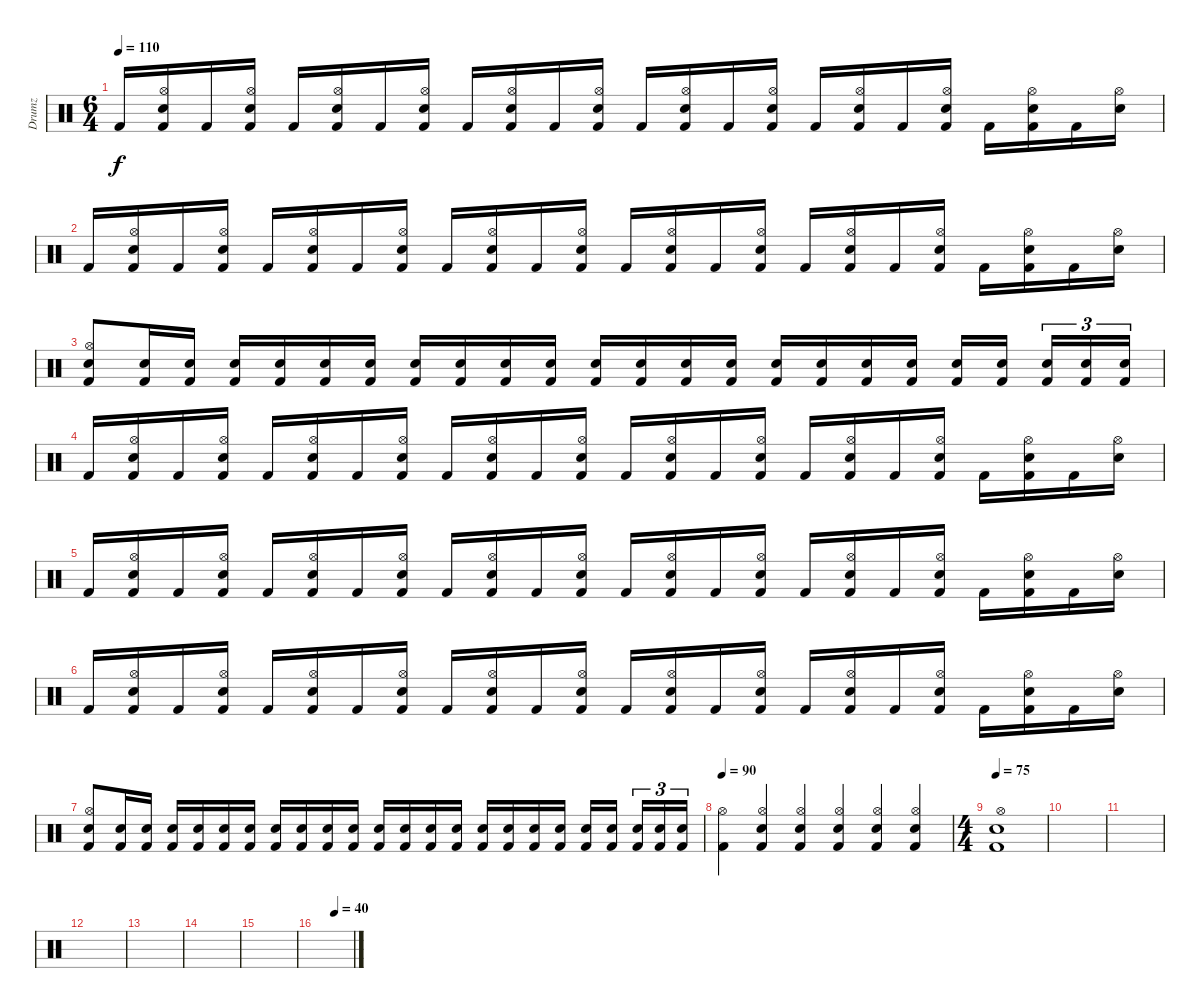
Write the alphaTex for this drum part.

\track ("Drumz" "Drumz") {instrument percussion}
\staff {score}
\articulation defaults
\ts (6 4)
\tempo 110
\clef neutral
\ks c "Kick (hit) 2".16{dy f}
("Hi-Hat (open)" "Snare (hit) 2" "Kick (hit) 2").16 "Kick (hit) 2".16 ("Hi-Hat (open)" "Snare (hit) 2" "Kick (hit) 2").16 "Kick (hit) 2".16 ("Hi-Hat (open)" "Snare (hit) 2" "Kick (hit) 2").16 "Kick (hit) 2".16 ("Hi-Hat (open)" "Snare (hit) 2" "Kick (hit) 2").16 "Kick (hit) 2".16 ("Hi-Hat (open)" "Snare (hit) 2" "Kick (hit) 2").16 "Kick (hit) 2".16 ("Hi-Hat (open)" "Snare (hit) 2" "Kick (hit) 2").16 "Kick (hit) 2".16 ("Hi-Hat (open)" "Snare (hit) 2" "Kick (hit) 2").16 "Kick (hit) 2".16 ("Hi-Hat (open)" "Snare (hit) 2" "Kick (hit) 2").16 "Kick (hit) 2".16 ("Hi-Hat (open)" "Snare (hit) 2" "Kick (hit) 2").16 "Kick (hit) 2".16 ("Hi-Hat (open)" "Snare (hit) 2" "Kick (hit) 2").16 "Kick (hit) 2".16 ("Hi-Hat (open)" "Snare (hit) 2" "Kick (hit) 2").16 "Kick (hit) 2".16 ("Hi-Hat (open)" "Snare (hit) 2").16 |
"Kick (hit) 2".16 ("Hi-Hat (open)" "Snare (hit) 2" "Kick (hit) 2").16 "Kick (hit) 2".16 ("Hi-Hat (open)" "Snare (hit) 2" "Kick (hit) 2").16 "Kick (hit) 2".16 ("Hi-Hat (open)" "Snare (hit) 2" "Kick (hit) 2").16 "Kick (hit) 2".16 ("Hi-Hat (open)" "Snare (hit) 2" "Kick (hit) 2").16 "Kick (hit) 2".16 ("Hi-Hat (open)" "Snare (hit) 2" "Kick (hit) 2").16 "Kick (hit) 2".16 ("Hi-Hat (open)" "Snare (hit) 2" "Kick (hit) 2").16 "Kick (hit) 2".16 ("Hi-Hat (open)" "Snare (hit) 2" "Kick (hit) 2").16 "Kick (hit) 2".16 ("Hi-Hat (open)" "Snare (hit) 2" "Kick (hit) 2").16 "Kick (hit) 2".16 ("Hi-Hat (open)" "Snare (hit) 2" "Kick (hit) 2").16 "Kick (hit) 2".16 ("Hi-Hat (open)" "Snare (hit) 2" "Kick (hit) 2").16 "Kick (hit) 2".16 ("Hi-Hat (open)" "Snare (hit) 2" "Kick (hit) 2").16 "Kick (hit) 2".16 ("Hi-Hat (open)" "Snare (hit) 2").16 |
("Hi-Hat (open)" "Snare (hit) 2" "Kick (hit) 2").8 ("Snare (hit) 2" "Kick (hit) 2").16 ("Snare (hit) 2" "Kick (hit) 2").16 ("Snare (hit) 2" "Kick (hit) 2").16 ("Snare (hit) 2" "Kick (hit) 2").16 ("Snare (hit) 2" "Kick (hit) 2").16 ("Snare (hit) 2" "Kick (hit) 2").16 ("Snare (hit) 2" "Kick (hit) 2").16 ("Snare (hit) 2" "Kick (hit) 2").16 ("Snare (hit) 2" "Kick (hit) 2").16 ("Snare (hit) 2" "Kick (hit) 2").16 ("Snare (hit) 2" "Kick (hit) 2").16 ("Snare (hit) 2" "Kick (hit) 2").16 ("Snare (hit) 2" "Kick (hit) 2").16 ("Snare (hit) 2" "Kick (hit) 2").16 ("Snare (hit) 2" "Kick (hit) 2").16 ("Snare (hit) 2" "Kick (hit) 2").16 ("Snare (hit) 2" "Kick (hit) 2").16 ("Snare (hit) 2" "Kick (hit) 2").16 ("Snare (hit) 2" "Kick (hit) 2").16 ("Snare (hit) 2" "Kick (hit) 2").16 ("Snare (hit) 2" "Kick (hit) 2").16{tu (3 2)} ("Snare (hit) 2" "Kick (hit) 2").16{tu (3 2)} ("Snare (hit) 2" "Kick (hit) 2").16{tu (3 2)} |
"Kick (hit) 2".16 ("Hi-Hat (open)" "Snare (hit) 2" "Kick (hit) 2").16 "Kick (hit) 2".16 ("Hi-Hat (open)" "Snare (hit) 2" "Kick (hit) 2").16 "Kick (hit) 2".16 ("Hi-Hat (open)" "Snare (hit) 2" "Kick (hit) 2").16 "Kick (hit) 2".16 ("Hi-Hat (open)" "Snare (hit) 2" "Kick (hit) 2").16 "Kick (hit) 2".16 ("Hi-Hat (open)" "Snare (hit) 2" "Kick (hit) 2").16 "Kick (hit) 2".16 ("Hi-Hat (open)" "Snare (hit) 2" "Kick (hit) 2").16 "Kick (hit) 2".16 ("Hi-Hat (open)" "Snare (hit) 2" "Kick (hit) 2").16 "Kick (hit) 2".16 ("Hi-Hat (open)" "Snare (hit) 2" "Kick (hit) 2").16 "Kick (hit) 2".16 ("Hi-Hat (open)" "Snare (hit) 2" "Kick (hit) 2").16 "Kick (hit) 2".16 ("Hi-Hat (open)" "Snare (hit) 2" "Kick (hit) 2").16 "Kick (hit) 2".16 ("Hi-Hat (open)" "Snare (hit) 2" "Kick (hit) 2").16 "Kick (hit) 2".16 ("Hi-Hat (open)" "Snare (hit) 2").16 |
"Kick (hit) 2".16 ("Hi-Hat (open)" "Snare (hit) 2" "Kick (hit) 2").16 "Kick (hit) 2".16 ("Hi-Hat (open)" "Snare (hit) 2" "Kick (hit) 2").16 "Kick (hit) 2".16 ("Hi-Hat (open)" "Snare (hit) 2" "Kick (hit) 2").16 "Kick (hit) 2".16 ("Hi-Hat (open)" "Snare (hit) 2" "Kick (hit) 2").16 "Kick (hit) 2".16 ("Hi-Hat (open)" "Snare (hit) 2" "Kick (hit) 2").16 "Kick (hit) 2".16 ("Hi-Hat (open)" "Snare (hit) 2" "Kick (hit) 2").16 "Kick (hit) 2".16 ("Hi-Hat (open)" "Snare (hit) 2" "Kick (hit) 2").16 "Kick (hit) 2".16 ("Hi-Hat (open)" "Snare (hit) 2" "Kick (hit) 2").16 "Kick (hit) 2".16 ("Hi-Hat (open)" "Snare (hit) 2" "Kick (hit) 2").16 "Kick (hit) 2".16 ("Hi-Hat (open)" "Snare (hit) 2" "Kick (hit) 2").16 "Kick (hit) 2".16 ("Hi-Hat (open)" "Snare (hit) 2" "Kick (hit) 2").16 "Kick (hit) 2".16 ("Hi-Hat (open)" "Snare (hit) 2").16 |
"Kick (hit) 2".16 ("Hi-Hat (open)" "Snare (hit) 2" "Kick (hit) 2").16 "Kick (hit) 2".16 ("Hi-Hat (open)" "Snare (hit) 2" "Kick (hit) 2").16 "Kick (hit) 2".16 ("Hi-Hat (open)" "Snare (hit) 2" "Kick (hit) 2").16 "Kick (hit) 2".16 ("Hi-Hat (open)" "Snare (hit) 2" "Kick (hit) 2").16 "Kick (hit) 2".16 ("Hi-Hat (open)" "Snare (hit) 2" "Kick (hit) 2").16 "Kick (hit) 2".16 ("Hi-Hat (open)" "Snare (hit) 2" "Kick (hit) 2").16 "Kick (hit) 2".16 ("Hi-Hat (open)" "Snare (hit) 2" "Kick (hit) 2").16 "Kick (hit) 2".16 ("Hi-Hat (open)" "Snare (hit) 2" "Kick (hit) 2").16 "Kick (hit) 2".16 ("Hi-Hat (open)" "Snare (hit) 2" "Kick (hit) 2").16 "Kick (hit) 2".16 ("Hi-Hat (open)" "Snare (hit) 2" "Kick (hit) 2").16 "Kick (hit) 2".16 ("Hi-Hat (open)" "Snare (hit) 2" "Kick (hit) 2").16 "Kick (hit) 2".16 ("Hi-Hat (open)" "Snare (hit) 2").16 |
("Hi-Hat (open)" "Snare (hit) 2" "Kick (hit) 2").8 ("Snare (hit) 2" "Kick (hit) 2").16 ("Snare (hit) 2" "Kick (hit) 2").16 ("Snare (hit) 2" "Kick (hit) 2").16 ("Snare (hit) 2" "Kick (hit) 2").16 ("Snare (hit) 2" "Kick (hit) 2").16 ("Snare (hit) 2" "Kick (hit) 2").16 ("Snare (hit) 2" "Kick (hit) 2").16 ("Snare (hit) 2" "Kick (hit) 2").16 ("Snare (hit) 2" "Kick (hit) 2").16 ("Snare (hit) 2" "Kick (hit) 2").16 ("Snare (hit) 2" "Kick (hit) 2").16 ("Snare (hit) 2" "Kick (hit) 2").16 ("Snare (hit) 2" "Kick (hit) 2").16 ("Snare (hit) 2" "Kick (hit) 2").16 ("Snare (hit) 2" "Kick (hit) 2").16 ("Snare (hit) 2" "Kick (hit) 2").16 ("Snare (hit) 2" "Kick (hit) 2").16 ("Snare (hit) 2" "Kick (hit) 2").16 ("Snare (hit) 2" "Kick (hit) 2").16 ("Snare (hit) 2" "Kick (hit) 2").16 ("Snare (hit) 2" "Kick (hit) 2").16{tu (3 2)} ("Snare (hit) 2" "Kick (hit) 2").16{tu (3 2)} ("Snare (hit) 2" "Kick (hit) 2").16{tu (3 2)} |
\tempo 130
\tempo 90
("Hi-Hat (open)" "Kick (hit) 2").4 ("Hi-Hat (open)" "Snare (hit) 2" "Kick (hit) 2").4 ("Hi-Hat (open)" "Snare (hit) 2" "Kick (hit) 2").4 ("Hi-Hat (open)" "Snare (hit) 2" "Kick (hit) 2").4 ("Hi-Hat (open)" "Snare (hit) 2" "Kick (hit) 2").4 ("Hi-Hat (open)" "Snare (hit) 2" "Kick (hit) 2").4 |
\ts (4 4)
\tempo 75
("Hi-Hat (open)" "Snare (hit) 2" "Kick (hit) 2").1 |
|
|
|
|
|
|
\tempo (40 0.5)
